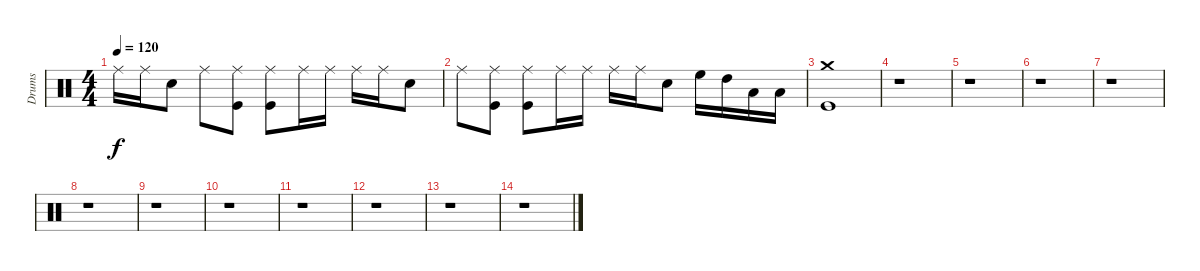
\track ("Drums" "Drums") {instrument percussion}
\staff {score}
\articulation defaults
\ts (4 4)
\tempo 120
\clef neutral
\ks c "Ride (middle)".16{dy f} "Ride (middle)".16 "Electric Snare (hit)".8 "Ride (middle)".8
("Ride (middle)" "Kick (hit)").8 ("Ride (middle)" "Kick (hit)").8 "Ride (middle)".16 "Ride (middle)".16 "Ride (middle)".16 "Ride (middle)".16 "Electric Snare (hit)".8 |
"Ride (middle)".8 ("Ride (middle)" "Kick (hit)").8 ("Ride (middle)" "Kick (hit)").8 "Ride (middle)".16 "Ride (middle)".16 "Ride (middle)".16 "Ride (middle)".16 "Electric Snare (hit)".8 "High Floor Tom (hit)".16 "High Tom (hit)".16 "Low Tom (hit)".16 "Low Floor Tom (hit)".16 |
("Crash medium (hit)" "Kick (hit)").1 |
r.1 |
r.1 |
r.1 |
r.1 |
r.1 |
r.1 |
r.1 |
r.1 |
r.1 |
r.1 |
r.1
